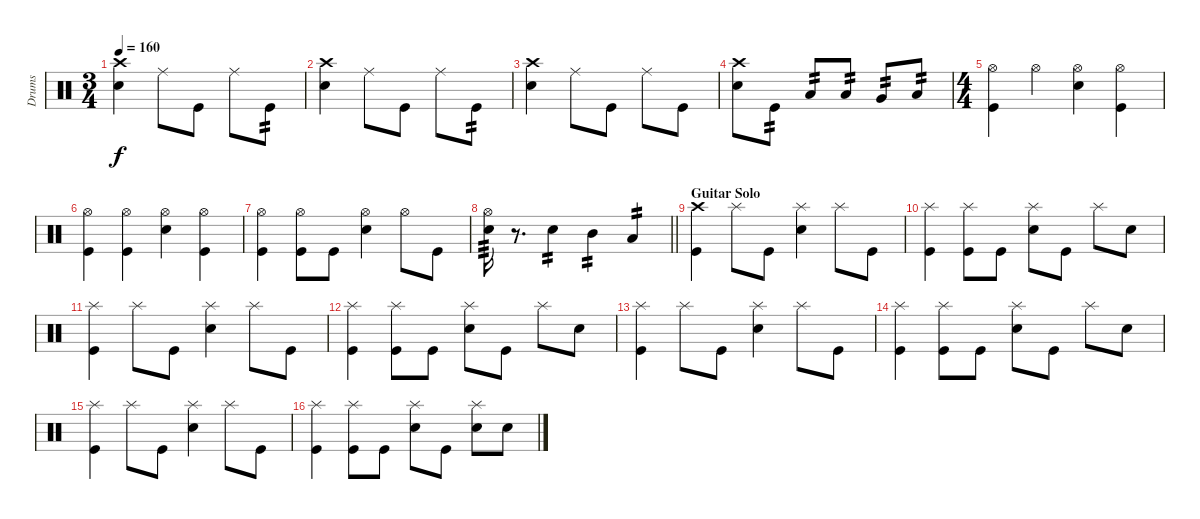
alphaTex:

\track ("Drums" "Drums") {instrument percussion}
\staff {score}
\articulation defaults
\ts (3 4)
\tempo 160
\clef neutral
\ks c
("Crash high (hit)" "Snare (hit) 2").4{dy f} "Ride (middle)".8 "Kick (hit)".8 "Ride (middle)".8 "Kick (hit)".8{tp 2} |
("Crash high (hit)" "Snare (hit) 2").4 "Ride (middle)".8 "Kick (hit)".8 "Ride (middle)".8 "Kick (hit)".8{tp 2} |
("Crash high (hit)" "Snare (hit) 2").4 "Ride (middle)".8 "Kick (hit)".8 "Ride (middle)".8 "Kick (hit)".8 |
("Crash high (hit)" "Snare (hit) 2").8 "Kick (hit)".8{tp 2} "Low Tom (hit)".8{tp 2} "Low Floor Tom (hit)".8{tp 2} "Very Low Tom (hit)".8{tp 2} "Low Floor Tom (hit)".8{tp 2} |
\ts (4 4)
("Hi-Hat (open)" "Kick (hit)").4 "Hi-Hat (open)".4 ("Hi-Hat (open)" "Snare (hit) 2").4 ("Hi-Hat (open)" "Kick (hit)").4 |
("Hi-Hat (open)" "Kick (hit)").4 ("Hi-Hat (open)" "Kick (hit)").4 ("Hi-Hat (open)" "Snare (hit) 2").4 ("Hi-Hat (open)" "Kick (hit)").4 |
("Hi-Hat (open)" "Kick (hit)").4 ("Hi-Hat (open)" "Kick (hit)").8 "Kick (hit)".8 ("Hi-Hat (open)" "Snare (hit) 2").4 "Hi-Hat (open)".8 "Kick (hit)".8 |
\barLineRight lightlight
("Hi-Hat (open)" "Snare (hit) 2").16{tp 3} r.8{d} "Snare (hit) 2".4{tp 2} "Mid Tom (hit)".4{tp 2} "Low Tom (hit)".4{tp 2} |
\section ("" "Guitar Solo")
("Crash high (hit)" "Kick (hit)").4 "Splash (hit)".8 "Kick (hit)".8 ("Splash (hit)" "Snare (hit) 2").4 "Splash (hit)".8 "Kick (hit)".8 |
("Splash (hit)" "Kick (hit)").4 ("Splash (hit)" "Kick (hit)").8 "Kick (hit)".8 ("Splash (hit)" "Snare (hit) 2").8 "Kick (hit)".8 "Splash (hit)".8 "Snare (hit) 2".8 |
("Splash (hit)" "Kick (hit)").4 "Splash (hit)".8 "Kick (hit)".8 ("Splash (hit)" "Snare (hit) 2").4 "Splash (hit)".8 "Kick (hit)".8 |
("Splash (hit)" "Kick (hit)").4 ("Splash (hit)" "Kick (hit)").8 "Kick (hit)".8 ("Splash (hit)" "Snare (hit) 2").8 "Kick (hit)".8 "Splash (hit)".8 "Snare (hit) 2".8 |
("Splash (hit)" "Kick (hit)").4 "Splash (hit)".8 "Kick (hit)".8 ("Splash (hit)" "Snare (hit) 2").4 "Splash (hit)".8 "Kick (hit)".8 |
("Splash (hit)" "Kick (hit)").4 ("Splash (hit)" "Kick (hit)").8 "Kick (hit)".8 ("Splash (hit)" "Snare (hit) 2").8 "Kick (hit)".8 "Splash (hit)".8 "Snare (hit) 2".8 |
("Splash (hit)" "Kick (hit)").4 "Splash (hit)".8 "Kick (hit)".8 ("Splash (hit)" "Snare (hit) 2").4 "Splash (hit)".8 "Kick (hit)".8 |
("Splash (hit)" "Kick (hit)").4 ("Splash (hit)" "Kick (hit)").8 "Kick (hit)".8 ("Splash (hit)" "Snare (hit) 2").8 "Kick (hit)".8 ("Splash (hit)" "Snare (hit) 2").8 "Snare (hit) 2".8
